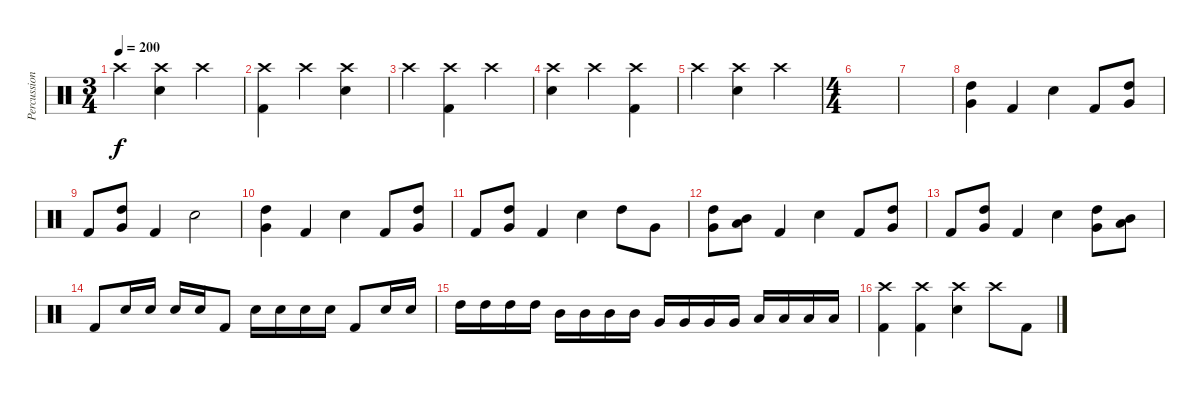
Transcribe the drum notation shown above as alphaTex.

\track ("Percussion" "Percussion") {instrument percussion}
\staff {score}
\articulation defaults
\ts (3 4)
\tempo 200
\clef neutral
\ks c "Crash high (hit)".4{dy f}
("Crash high (hit)" "Electric Snare (hit)").4 "Crash high (hit)".4 |
("Crash high (hit)" "Kick (hit) 2").4 "Crash high (hit)".4 ("Crash high (hit)" "Electric Snare (hit)").4 |
"Crash high (hit)".4 ("Crash high (hit)" "Kick (hit) 2").4 "Crash high (hit)".4 |
("Crash high (hit)" "Electric Snare (hit)").4 "Crash high (hit)".4 ("Crash high (hit)" "Kick (hit) 2").4 |
"Crash high (hit)".4 ("Crash high (hit)" "Electric Snare (hit)").4 "Crash high (hit)".4 |
\ts (4 4)
|
|
("High Tom (hit)"{tr (47 16)} "Very Low Tom (hit)"{tr (43 16)}).4 "Kick (hit) 2".4 "Electric Snare (hit)".4 "Kick (hit) 2".8 ("High Tom (hit)" "Very Low Tom (hit)").8 |
"Kick (hit) 2".8 ("High Tom (hit)" "Very Low Tom (hit)").8 "Kick (hit) 2".4 "Electric Snare (hit)".2 |
("High Tom (hit)"{tr (47 16)} "Very Low Tom (hit)"{tr (43 16)}).4 "Kick (hit) 2".4 "Electric Snare (hit)".4 "Kick (hit) 2".8 ("High Tom (hit)" "Very Low Tom (hit)").8 |
"Kick (hit) 2".8 ("High Tom (hit)" "Very Low Tom (hit)").8 "Kick (hit) 2".4 "Electric Snare (hit)".4 "High Tom (hit)".8 "Very Low Tom (hit)".8 |
("High Tom (hit)" "Very Low Tom (hit)").8 ("Mid Tom (hit)" "Low Floor Tom (hit)").8 "Kick (hit) 2".4 "Electric Snare (hit)".4 "Kick (hit) 2".8 ("High Tom (hit)" "Very Low Tom (hit)").8 |
"Kick (hit) 2".8 ("High Tom (hit)" "Very Low Tom (hit)").8 "Kick (hit) 2".4 "Electric Snare (hit)".4 ("Very Low Tom (hit)" "High Tom (hit)").8 ("Low Floor Tom (hit)" "Mid Tom (hit)").8 |
"Kick (hit) 2".8 "Electric Snare (hit)".16 "Electric Snare (hit)".16 "Electric Snare (hit)".16 "Electric Snare (hit)".16 "Kick (hit) 2".8 "Electric Snare (hit)".16 "Electric Snare (hit)".16 "Electric Snare (hit)".16 "Electric Snare (hit)".16 "Kick (hit) 2".8 "Electric Snare (hit)".16 "Electric Snare (hit)".16 |
"High Tom (hit)".16 "High Tom (hit)".16 "High Tom (hit)".16 "High Tom (hit)".16 "Mid Tom (hit)".16 "Mid Tom (hit)".16 "Mid Tom (hit)".16 "Mid Tom (hit)".16 "Very Low Tom (hit)".16 "Very Low Tom (hit)".16 "Very Low Tom (hit)".16 "Very Low Tom (hit)".16 "Low Floor Tom (hit)".16 "Low Floor Tom (hit)".16 "Low Floor Tom (hit)".16 "Low Floor Tom (hit)".16 |
("Crash high (hit)" "Kick (hit) 2").4 ("Crash high (hit)" "Kick (hit) 2").4 ("Crash high (hit)" "Electric Snare (hit)").4 "Crash high (hit)".8 "Kick (hit) 2".8
